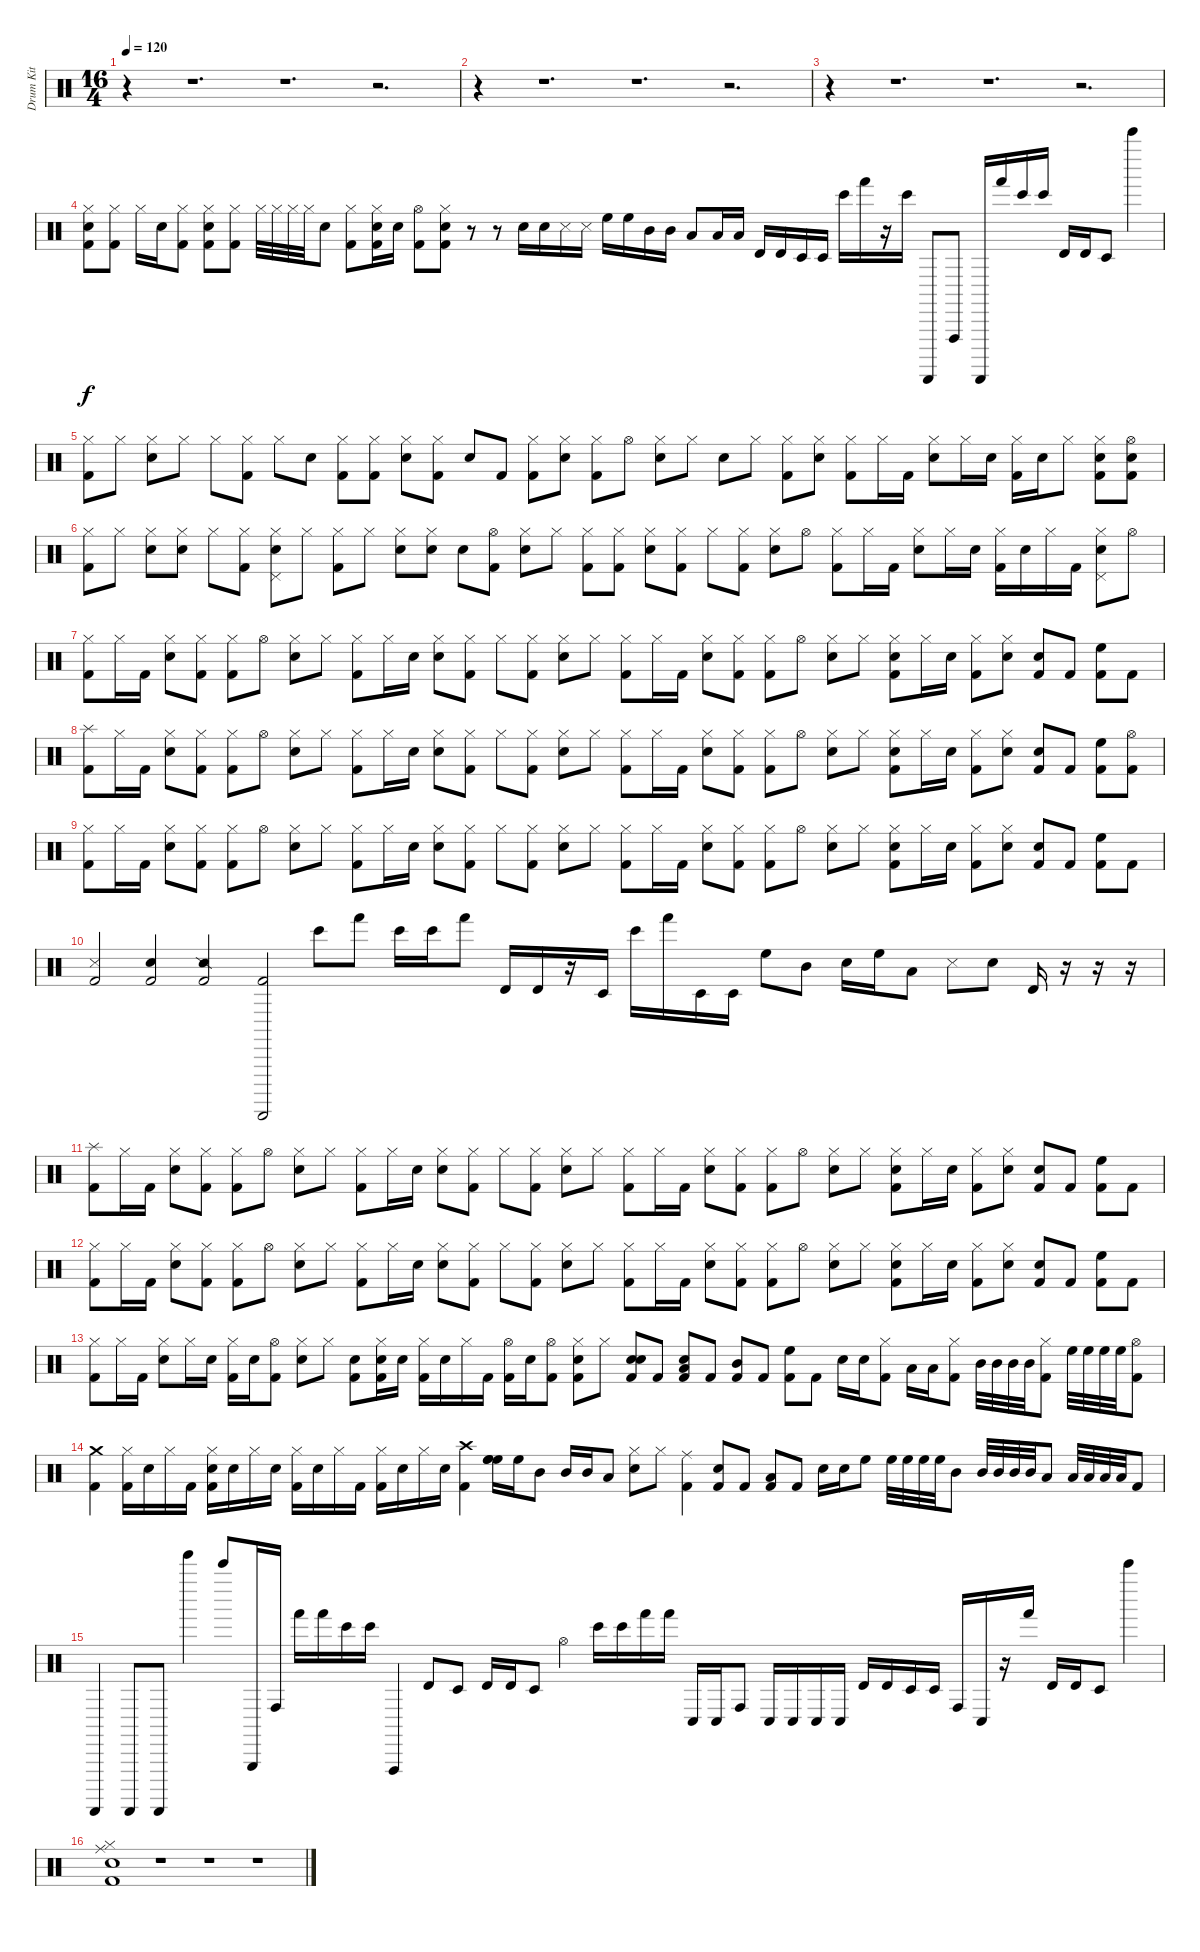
\track ("Drum Kit" "Drum Kit") {instrument percussion}
\staff {score}
\articulation defaults
\ts (16 4)
\tempo 120
\clef neutral
\ks c
r.4{dy f} r.1{d} r.1{d} r.2{d} |
r.4 r.1{d} r.1{d} r.2{d} |
r.4 r.1{d} r.1{d} r.2{d} |
("Hi-Hat (closed)" "Snare (hit) 2" "Kick (hit) 2").8 ("Hi-Hat (closed)" "Kick (hit) 2").8 "Hi-Hat (closed)".16 "Snare (hit) 2".16 ("Hi-Hat (closed)" "Kick (hit) 2").8 ("Hi-Hat (closed)" "Snare (hit) 2" "Kick (hit) 2").8 ("Hi-Hat (closed)" "Kick (hit) 2").8 "Hi-Hat (closed)".32 "Hi-Hat (closed)".32 "Hi-Hat (closed)".32 "Hi-Hat (closed)".32 "Snare (hit) 2".8 ("Hi-Hat (closed)" "Kick (hit) 2").8 ("Hi-Hat (closed)" "Snare (hit) 2" "Kick (hit) 2").16 "Snare (hit) 2".16 ("Hi-Hat (open)" "Kick (hit) 2").8 ("Hi-Hat (closed)" "Snare (hit) 2" "Kick (hit) 2").8 r.8 r.8 "Snare (hit) 2".16 "Snare (hit) 2".16 "Snare (side stick) 3".16 "Snare (side stick) 3".16 "High Floor Tom (hit)".16 "High Floor Tom (hit)".16 "Mid Tom (hit)".16 "Mid Tom (hit)".16 "Low Tom (hit)".8 "Low Tom (hit)".16 "Low Floor Tom (hit)".16 "Timbale high (hit)".16 "Timbale high (hit)".16 "Timbale low (hit)".16 "Timbale low (hit)".16 "Bongo High (hit)".16 "Hand (hit)".16 r.16 "Bongo High (hit)".16 "Guiro (scrap-return)".8 "Vibraslap (hit)".8 "Guiro (scrap-return)".16 "Hand (hit)".16 "Bongo High (hit)".16 "Bongo High (hit)".16 "Timbale high (hit)".16 "Timbale high (hit)".16 "Timbale low (hit)".8 "Bell Tree (hit)".4 |
("Hi-Hat (closed)" "Kick (hit) 2").8 "Hi-Hat (closed)".8 ("Hi-Hat (closed)" "Snare (hit) 2").8 "Hi-Hat (closed)".8 "Hi-Hat (closed)".8 ("Hi-Hat (closed)" "Kick (hit) 2").8 "Hi-Hat (closed)".8 "Snare (hit) 2".8 ("Hi-Hat (closed)" "Kick (hit) 2").8 ("Hi-Hat (closed)" "Kick (hit) 2").8 ("Hi-Hat (closed)" "Snare (hit) 2").8 ("Hi-Hat (closed)" "Kick (hit) 2").8 "Snare (hit) 2".8 "Kick (hit) 2".8 ("Hi-Hat (closed)" "Kick (hit) 2").8 ("Hi-Hat (closed)" "Snare (hit) 2").8 ("Hi-Hat (closed)" "Kick (hit) 2").8 "Hi-Hat (open)".8 ("Hi-Hat (closed)" "Snare (hit) 2").8 "Hi-Hat (closed)".8 "Snare (hit) 2".8 "Hi-Hat (closed)".8 ("Hi-Hat (closed)" "Kick (hit) 2").8 ("Hi-Hat (closed)" "Snare (hit) 2").8 ("Hi-Hat (closed)" "Kick (hit) 2").8 "Hi-Hat (closed)".16 "Kick (hit) 2".16 ("Hi-Hat (closed)" "Snare (hit) 2").8 "Hi-Hat (closed)".16 "Snare (hit) 2".16 ("Hi-Hat (closed)" "Kick (hit) 2").16 "Snare (hit) 2".16 "Hi-Hat (closed)".8 ("Hi-Hat (closed)" "Snare (hit) 2" "Kick (hit) 2").8 ("Hi-Hat (open)" "Hand Clap (hit)" "Kick (hit) 2").8 |
("Hi-Hat (closed)" "Kick (hit) 2").8 "Hi-Hat (closed)".8 ("Hi-Hat (closed)" "Hand Clap (hit)").8 ("Hi-Hat (closed)" "Hand Clap (hit)").8 "Hi-Hat (closed)".8 ("Hi-Hat (closed)" "Kick (hit) 2").8 ("Hi-Hat (closed)" "Snare (hit) 2" "Pedal Hi-Hat (hit)").8 "Hi-Hat (closed)".8 ("Hi-Hat (closed)" "Kick (hit) 2").8 "Hi-Hat (closed)".8 ("Hi-Hat (closed)" "Hand Clap (hit)").8 ("Hi-Hat (closed)" "Hand Clap (hit)").8 "Snare (hit) 2".8 ("Hi-Hat (open)" "Kick (hit) 2").8 ("Hi-Hat (closed)" "Snare (hit) 2").8 "Hi-Hat (closed)".8 ("Hi-Hat (closed)" "Kick (hit) 2").8 ("Hi-Hat (closed)" "Kick (hit) 2").8 ("Hi-Hat (closed)" "Hand Clap (hit)").8 ("Hi-Hat (closed)" "Kick (hit) 2").8 "Hi-Hat (closed)".8 ("Hi-Hat (closed)" "Kick (hit) 2").8 ("Hi-Hat (closed)" "Snare (hit) 2").8 "Hi-Hat (open)".8 ("Hi-Hat (closed)" "Kick (hit) 2").8 "Hi-Hat (closed)".16 "Kick (hit) 2".16 ("Hi-Hat (closed)" "Snare (hit) 2").8 "Hi-Hat (closed)".16 "Snare (hit) 2".16 ("Hi-Hat (closed)" "Kick (hit) 2").16 "Snare (hit) 2".16 "Hi-Hat (closed)".16 "Kick (hit) 2".16 ("Hi-Hat (closed)" "Snare (hit) 2" "Pedal Hi-Hat (hit)").8 "Hi-Hat (open)".8 |
("Hi-Hat (closed)" "Kick (hit) 2").8 "Hi-Hat (closed)".16 "Kick (hit) 2".16 ("Hi-Hat (closed)" "Hand Clap (hit)").8 ("Hi-Hat (closed)" "Kick (hit) 2").8 ("Hi-Hat (closed)" "Kick (hit) 2").8 "Hi-Hat (open)".8 ("Hi-Hat (closed)" "Snare (hit) 2").8 "Hi-Hat (closed)".8 ("Hi-Hat (closed)" "Kick (hit) 2").8 "Hi-Hat (closed)".16 "Snare (hit) 2".16 ("Hi-Hat (closed)" "Snare (hit) 2").8 ("Hi-Hat (closed)" "Kick (hit) 2").8 "Hi-Hat (closed)".8 ("Hi-Hat (closed)" "Kick (hit) 2").8 ("Hi-Hat (closed)" "Hand Clap (hit)").8 "Hi-Hat (closed)".8 ("Hi-Hat (closed)" "Kick (hit) 2").8 "Hi-Hat (closed)".16 "Kick (hit) 2".16 ("Hi-Hat (closed)" "Hand Clap (hit)").8 ("Hi-Hat (closed)" "Kick (hit) 2").8 ("Hi-Hat (closed)" "Kick (hit) 2").8 "Hi-Hat (open)".8 ("Hi-Hat (closed)" "Snare (hit) 2").8 "Hi-Hat (closed)".8 ("Hi-Hat (closed)" "Hand Clap (hit)" "Kick (hit) 2").8 "Hi-Hat (closed)".16 "Snare (hit) 2".16 ("Hi-Hat (closed)" "Kick (hit) 2").8 ("Hi-Hat (closed)" "Snare (hit) 2").8 ("Snare (hit) 2" "Kick (hit) 2").8 "Kick (hit) 2".8 ("High Floor Tom (hit)" "Kick (hit) 2").8 "Kick (hit) 2".8 |
("Splash (hit)" "Kick (hit) 2").8 "Hi-Hat (closed)".16 "Kick (hit) 2".16 ("Hi-Hat (closed)" "Hand Clap (hit)").8 ("Hi-Hat (closed)" "Kick (hit) 2").8 ("Hi-Hat (closed)" "Kick (hit) 2").8 "Hi-Hat (open)".8 ("Hi-Hat (closed)" "Snare (hit) 2").8 "Hi-Hat (closed)".8 ("Hi-Hat (closed)" "Kick (hit) 2").8 "Hi-Hat (closed)".16 "Snare (hit) 2".16 ("Hi-Hat (closed)" "Snare (hit) 2").8 ("Hi-Hat (closed)" "Kick (hit) 2").8 "Hi-Hat (closed)".8 ("Hi-Hat (closed)" "Kick (hit) 2").8 ("Hi-Hat (closed)" "Hand Clap (hit)").8 "Hi-Hat (closed)".8 ("Hi-Hat (closed)" "Kick (hit) 2").8 "Hi-Hat (closed)".16 "Kick (hit) 2".16 ("Hi-Hat (closed)" "Hand Clap (hit)").8 ("Hi-Hat (closed)" "Kick (hit) 2").8 ("Hi-Hat (closed)" "Kick (hit) 2").8 "Hi-Hat (open)".8 ("Hi-Hat (closed)" "Snare (hit) 2").8 "Hi-Hat (closed)".8 ("Hi-Hat (closed)" "Hand Clap (hit)" "Kick (hit) 2").8 "Hi-Hat (closed)".16 "Snare (hit) 2".16 ("Hi-Hat (closed)" "Kick (hit) 2").8 ("Hi-Hat (closed)" "Snare (hit) 2").8 ("Snare (hit) 2" "Kick (hit) 2").8 "Kick (hit) 2".8 ("High Floor Tom (hit)" "Kick (hit) 2").8 ("Hi-Hat (open)" "Kick (hit) 2").8 |
("Hi-Hat (closed)" "Kick (hit) 2").8 "Hi-Hat (closed)".16 "Kick (hit) 2".16 ("Hi-Hat (closed)" "Hand Clap (hit)").8 ("Hi-Hat (closed)" "Kick (hit) 2").8 ("Hi-Hat (closed)" "Kick (hit) 2").8 "Hi-Hat (open)".8 ("Hi-Hat (closed)" "Snare (hit) 2").8 "Hi-Hat (closed)".8 ("Hi-Hat (closed)" "Kick (hit) 2").8 "Hi-Hat (closed)".16 "Snare (hit) 2".16 ("Hi-Hat (closed)" "Snare (hit) 2").8 ("Hi-Hat (closed)" "Kick (hit) 2").8 "Hi-Hat (closed)".8 ("Hi-Hat (closed)" "Kick (hit) 2").8 ("Hi-Hat (closed)" "Hand Clap (hit)").8 "Hi-Hat (closed)".8 ("Hi-Hat (closed)" "Kick (hit) 2").8 "Hi-Hat (closed)".16 "Kick (hit) 2".16 ("Hi-Hat (closed)" "Hand Clap (hit)").8 ("Hi-Hat (closed)" "Kick (hit) 2").8 ("Hi-Hat (closed)" "Kick (hit) 2").8 "Hi-Hat (open)".8 ("Hi-Hat (closed)" "Snare (hit) 2").8 "Hi-Hat (closed)".8 ("Hi-Hat (closed)" "Hand Clap (hit)" "Kick (hit) 2").8 "Hi-Hat (closed)".16 "Snare (hit) 2".16 ("Hi-Hat (closed)" "Kick (hit) 2").8 ("Hi-Hat (closed)" "Snare (hit) 2").8 ("Snare (hit) 2" "Kick (hit) 2").8 "Kick (hit) 2".8 ("High Floor Tom (hit)" "Kick (hit) 2").8 "Kick (hit) 2".8 |
("Metronome (hit)" "Kick (hit) 2").2 ("Metronome (bell)" "Kick (hit) 2").2 ("Snare (side stick) 2" "Kick (hit) 2").2 ("Guiro (scrap-return)" "Kick (hit) 2").2 "Bongo High (hit)".8 "Hand (hit)".8 "Bongo High (hit)".16 "Bongo High (hit)".16 "Hand (hit)".8 "Timbale high (hit)".16 "Timbale high (hit)".16 r.16 "Timbale low (hit)".16 "Bongo High (hit)".16 "Hand (hit)".16 "Timbale low (hit)".16 "Timbale low (hit)".16 "High Floor Tom (hit)".8 "Mid Tom (hit)".8 "Snare (hit) 2".16 "High Floor Tom (hit)".16 "Low Tom (hit)".8 "Metronome (hit)".8 "Metronome (bell)".8 "Timbale high (hit)".16 r.16 r.16 r.16 |
("Splash (hit)" "Kick (hit) 2").8 "Hi-Hat (closed)".16 "Kick (hit) 2".16 ("Hi-Hat (closed)" "Hand Clap (hit)").8 ("Hi-Hat (closed)" "Kick (hit) 2").8 ("Hi-Hat (closed)" "Kick (hit) 2").8 "Hi-Hat (open)".8 ("Hi-Hat (closed)" "Snare (hit) 2").8 "Hi-Hat (closed)".8 ("Hi-Hat (closed)" "Kick (hit) 2").8 "Hi-Hat (closed)".16 "Snare (hit) 2".16 ("Hi-Hat (closed)" "Snare (hit) 2").8 ("Hi-Hat (closed)" "Kick (hit) 2").8 "Hi-Hat (closed)".8 ("Hi-Hat (closed)" "Kick (hit) 2").8 ("Hi-Hat (closed)" "Hand Clap (hit)").8 "Hi-Hat (closed)".8 ("Hi-Hat (closed)" "Kick (hit) 2").8 "Hi-Hat (closed)".16 "Kick (hit) 2".16 ("Hi-Hat (closed)" "Hand Clap (hit)").8 ("Hi-Hat (closed)" "Kick (hit) 2").8 ("Hi-Hat (closed)" "Kick (hit) 2").8 "Hi-Hat (open)".8 ("Hi-Hat (closed)" "Snare (hit) 2").8 "Hi-Hat (closed)".8 ("Hi-Hat (closed)" "Hand Clap (hit)" "Kick (hit) 2").8 "Hi-Hat (closed)".16 "Snare (hit) 2".16 ("Hi-Hat (closed)" "Kick (hit) 2").8 ("Hi-Hat (closed)" "Snare (hit) 2").8 ("Snare (hit) 2" "Kick (hit) 2").8 "Kick (hit) 2".8 ("High Floor Tom (hit)" "Kick (hit) 2").8 "Kick (hit) 2".8 |
("Hi-Hat (closed)" "Kick (hit) 2").8 "Hi-Hat (closed)".16 "Kick (hit) 2".16 ("Hi-Hat (closed)" "Hand Clap (hit)").8 ("Hi-Hat (closed)" "Kick (hit) 2").8 ("Hi-Hat (closed)" "Kick (hit) 2").8 "Hi-Hat (open)".8 ("Hi-Hat (closed)" "Snare (hit) 2").8 "Hi-Hat (closed)".8 ("Hi-Hat (closed)" "Kick (hit) 2").8 "Hi-Hat (closed)".16 "Snare (hit) 2".16 ("Hi-Hat (closed)" "Snare (hit) 2").8 ("Hi-Hat (closed)" "Kick (hit) 2").8 "Hi-Hat (closed)".8 ("Hi-Hat (closed)" "Kick (hit) 2").8 ("Hi-Hat (closed)" "Hand Clap (hit)").8 "Hi-Hat (closed)".8 ("Hi-Hat (closed)" "Kick (hit) 2").8 "Hi-Hat (closed)".16 "Kick (hit) 2".16 ("Hi-Hat (closed)" "Hand Clap (hit)").8 ("Hi-Hat (closed)" "Kick (hit) 2").8 ("Hi-Hat (closed)" "Kick (hit) 2").8 "Hi-Hat (open)".8 ("Hi-Hat (closed)" "Snare (hit) 2").8 "Hi-Hat (closed)".8 ("Hi-Hat (closed)" "Hand Clap (hit)" "Kick (hit) 2").8 "Hi-Hat (closed)".16 "Snare (hit) 2".16 ("Hi-Hat (closed)" "Kick (hit) 2").8 ("Hi-Hat (closed)" "Snare (hit) 2").8 ("Snare (hit) 2" "Kick (hit) 2").8 "Kick (hit) 2".8 ("High Floor Tom (hit)" "Kick (hit) 2").8 "Kick (hit) 2".8 |
("Hi-Hat (closed)" "Kick (hit) 2").8 "Hi-Hat (closed)".16 "Kick (hit) 2".16 ("Hi-Hat (closed)" "Snare (hit) 2").8 "Hi-Hat (closed)".16 "Snare (hit) 2".16 ("Hi-Hat (closed)" "Kick (hit) 2").16 "Snare (hit) 2".16 ("Hi-Hat (open)" "Kick (hit) 2").8 ("Hi-Hat (closed)" "Snare (hit) 2").8 "Hi-Hat (closed)".8 ("Snare (hit) 2" "Kick (hit) 2").8 ("Hi-Hat (closed)" "Snare (hit) 2" "Kick (hit) 2").16 "Snare (hit) 2".16 ("Hi-Hat (closed)" "Kick (hit) 2").16 "Snare (hit) 2".16 "Hi-Hat (closed)".16 "Kick (hit) 2".16 ("Hi-Hat (open)" "Kick (hit) 2").16 "Snare (hit) 2".16 ("Hi-Hat (open)" "Kick (hit) 2").8 ("Hi-Hat (closed)" "Snare (hit) 2" "Kick (hit) 2").8 "Hi-Hat (closed)".8 ("Snare (hit) 2" "Snare (hit) 2" "Kick (hit) 2").8 "Kick (hit) 2".8 ("Snare (hit) 2" "Low Tom (hit)" "Kick (hit) 2").8 "Kick (hit) 2".8 ("Mid Tom (hit)" "Kick (hit) 2").8 "Kick (hit) 2".8 ("High Floor Tom (hit)" "Kick (hit) 2").8 "Kick (hit) 2".8 "Snare (hit) 2".16 "Snare (hit) 2".16 ("Hi-Hat (closed)" "Kick (hit) 2").8 "Low Tom (hit)".16 "Low Tom (hit)".16 ("Hi-Hat (closed)" "Kick (hit) 2").8 "Mid Tom (hit)".32 "Mid Tom (hit)".32 "Mid Tom (hit)".32 "Mid Tom (hit)".32 ("Hi-Hat (closed)" "Kick (hit) 2").8 "High Floor Tom (hit)".32 "High Floor Tom (hit)".32 "High Floor Tom (hit)".32 "High Floor Tom (hit)".32 ("Hi-Hat (open)" "Kick (hit) 2").8 |
("Crash medium (hit)" "Kick (hit) 2").4 ("Hi-Hat (closed)" "Kick (hit) 2").16 "Snare (hit) 2".16 "Hi-Hat (closed)".16 "Kick (hit) 2".16 ("Hi-Hat (closed)" "Snare (hit) 2" "Kick (hit) 2").16 "Snare (hit) 2".16 "Hi-Hat (closed)".16 "Snare (hit) 2".16 ("Hi-Hat (closed)" "Kick (hit) 2").16 "Snare (hit) 2".16 "Hi-Hat (closed)".16 "Kick (hit) 2".16 ("Hi-Hat (closed)" "Kick (hit) 2").16 "Snare (hit) 2".16 "Hi-Hat (closed)".16 "Snare (hit) 2".16 ("Crash high (hit)" "Kick (hit) 2").4 ("High Floor Tom (hit)" "High Floor Tom (hit)" "High Floor Tom (hit)").16 "High Floor Tom (hit)".16 "Mid Tom (hit)".8 "Mid Tom (hit)".16 "Mid Tom (hit)".16 "Low Tom (hit)".8 ("Hi-Hat (closed)" "Snare (hit) 2").8 "Hi-Hat (closed)".8 ("Ride (middle)" "Kick (hit) 2").4 ("Snare (hit) 2" "Kick (hit) 2").8 "Kick (hit) 2".8 ("Low Tom (hit)" "Kick (hit) 2").8 "Kick (hit) 2".8 "Snare (hit) 2".16 "Snare (hit) 2".16 "High Floor Tom (hit)".8 "High Floor Tom (hit)".32 "High Floor Tom (hit)".32 "High Floor Tom (hit)".32 "High Floor Tom (hit)".32 "Mid Tom (hit)".8 "Mid Tom (hit)".32 "Mid Tom (hit)".32 "Mid Tom (hit)".32 "Mid Tom (hit)".32 "Low Tom (hit)".8 "Low Tom (hit)".32 "Low Tom (hit)".32 "Low Tom (hit)".32 "Low Tom (hit)".32 "Kick (hit) 2".8 |
"Guiro (scrap-return)".4 "Guiro (scrap-return)".8 "Guiro (scrap-return)".8 "Tinkle Bell (hit)".4 "Bell Tree (hit)".8 "Triangle (hit)".16 "Conga high (hit)".16 "Hand (hit)".16 "Hand (hit)".16 "Bongo High (hit)".16 "Bongo High (hit)".16 "Vibraslap (hit)".4 "Timbale high (hit)".8 "Timbale low (hit)".8 "Timbale high (hit)".16 "Timbale high (hit)".16 "Timbale low (hit)".8 "Hi-Hat (open)".4 "Bongo High (hit)".16 "Bongo High (hit)".16 "Hand (hit)".16 "Hand (hit)".16 "Conga low (hit)".16 "Conga low (hit)".16 "Conga high (hit)".8 "Conga low (hit)".16 "Conga low (hit)".16 "Conga low (hit)".16 "Conga low (hit)".16 "Timbale high (hit)".16 "Timbale high (hit)".16 "Timbale low (hit)".16 "Timbale low (hit)".16 "Conga high (hit)".16 "Conga low (hit)".16 r.16 "Hand (hit)".16 "Timbale high (hit)".16 "Timbale high (hit)".16 "Timbale low (hit)".8 "Bell Tree (hit)".4 |
("Hi-Hat (closed)" "Ride (middle)" "Hand Clap (hit)" "Kick (hit) 2").1 r.1 r.1 r.1
